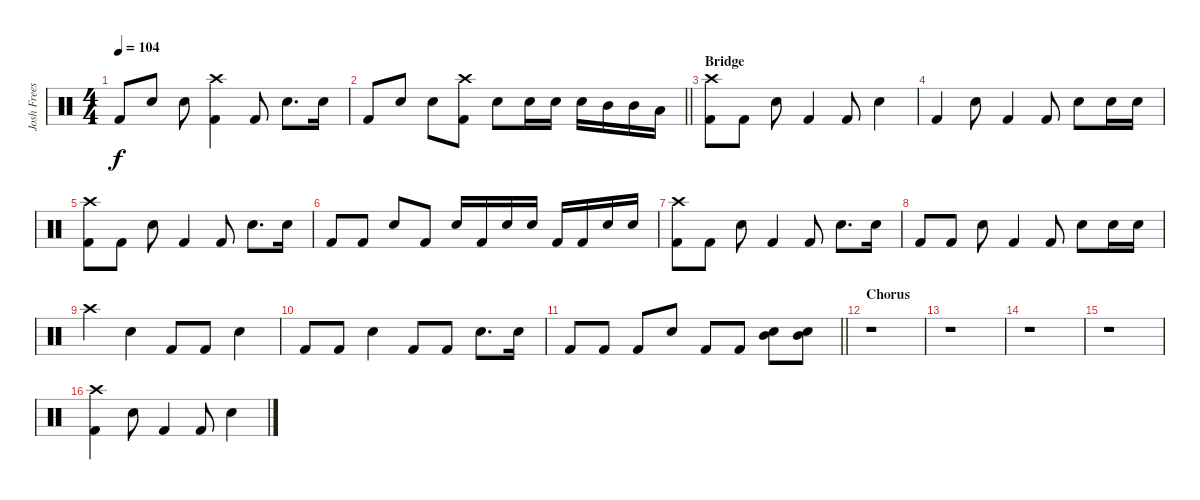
\track ("Josh Freese (Studio Drummer)" "Josh Frees") {instrument percussion}
\staff {score}
\articulation defaults
\ts (4 4)
\tempo 104
\clef neutral
\ks c "Kick (hit) 2".8{dy f} "Electric Snare (hit)".8 "Electric Snare (hit)".8
("Crash high (hit)" "Kick (hit) 2").4 "Kick (hit) 2".8 "Electric Snare (hit)".8{d} "Electric Snare (hit)".16 |
\barLineRight lightlight "Kick (hit) 2".8 "Electric Snare (hit)".8 "Electric Snare (hit)".8
("Crash high (hit)" "Kick (hit) 2").8 "Electric Snare (hit)".8 "Electric Snare (hit)".16 "Electric Snare (hit)".16 "Electric Snare (hit)".16 "Mid Tom (hit)".16 "Mid Tom (hit)".16 "Low Tom (hit)".16 |
\section ("" "Bridge")
("Crash high (hit)" "Kick (hit) 2").8 "Kick (hit) 2".8 "Electric Snare (hit)".8 "Kick (hit) 2".4 "Kick (hit) 2".8 "Electric Snare (hit)".4 |
"Kick (hit) 2".4 "Electric Snare (hit)".8 "Kick (hit) 2".4 "Kick (hit) 2".8 "Electric Snare (hit)".8 "Electric Snare (hit)".16 "Electric Snare (hit)".16 |
("Crash high (hit)" "Kick (hit) 2").8 "Kick (hit) 2".8 "Electric Snare (hit)".8 "Kick (hit) 2".4 "Kick (hit) 2".8 "Electric Snare (hit)".8{d} "Electric Snare (hit)".16 |
"Kick (hit) 2".8 "Kick (hit) 2".8 "Electric Snare (hit)".8 "Kick (hit) 2".8 "Electric Snare (hit)".16 "Kick (hit) 2".16 "Electric Snare (hit)".16 "Electric Snare (hit)".16 "Kick (hit) 2".16 "Kick (hit) 2".16 "Electric Snare (hit)".16 "Electric Snare (hit)".16 |
("Crash high (hit)" "Kick (hit) 2").8 "Kick (hit) 2".8 "Electric Snare (hit)".8 "Kick (hit) 2".4 "Kick (hit) 2".8 "Electric Snare (hit)".8{d} "Electric Snare (hit)".16 |
"Kick (hit) 2".8 "Kick (hit) 2".8 "Electric Snare (hit)".8 "Kick (hit) 2".4 "Kick (hit) 2".8 "Electric Snare (hit)".8 "Electric Snare (hit)".16 "Electric Snare (hit)".16 |
"Crash high (hit)".4 "Electric Snare (hit)".4 "Kick (hit) 2".8 "Kick (hit) 2".8 "Electric Snare (hit)".4 |
"Kick (hit) 2".8 "Kick (hit) 2".8 "Electric Snare (hit)".4 "Kick (hit) 2".8 "Kick (hit) 2".8 "Electric Snare (hit)".8{d} "Electric Snare (hit)".16 |
\barLineRight lightlight "Kick (hit) 2".8 "Kick (hit) 2".8 "Kick (hit) 2".8 "Electric Snare (hit)".8 "Kick (hit) 2".8 "Kick (hit) 2".8
("Electric Snare (hit)" "Mid Tom (hit)").8 ("Electric Snare (hit)" "Mid Tom (hit)").8 |
\section ("" "Chorus")
r.1 |
r.1 |
r.1 |
r.1 |
("Crash high (hit)" "Kick (hit) 2").4 "Electric Snare (hit)".8 "Kick (hit) 2".4 "Kick (hit) 2".8 "Electric Snare (hit)".4
